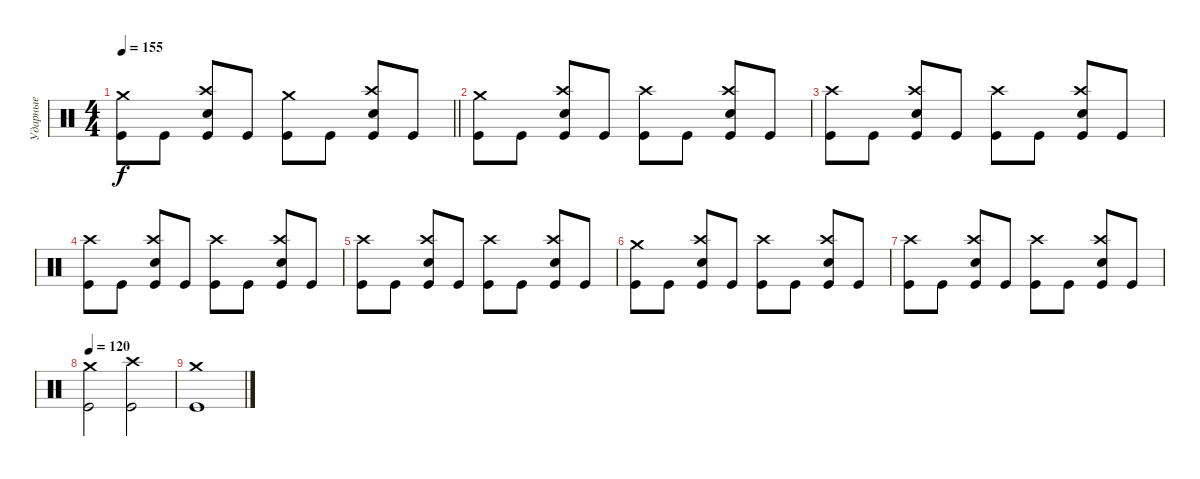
\track ("Ударные" "Ударные") {instrument percussion}
\staff {score}
\articulation defaults
\ts (4 4)
\tempo 155
\clef neutral
\barLineRight lightlight
\ks c
("Crash medium (hit)" "Kick (hit)").8{dy f} "Kick (hit)".8 ("Crash high (hit)" "Kick (hit)" "Electric Snare (hit)").8 "Kick (hit)".8 ("Crash medium (hit)" "Kick (hit)").8 "Kick (hit)".8 ("Crash high (hit)" "Kick (hit)" "Electric Snare (hit)").8 "Kick (hit)".8 |
\section ("" " ")
("Crash medium (hit)" "Kick (hit)").8 "Kick (hit)".8 ("Crash high (hit)" "Kick (hit)" "Electric Snare (hit)").8 "Kick (hit)".8 ("Crash high (hit)" "Kick (hit)").8 "Kick (hit)".8 ("Crash high (hit)" "Kick (hit)" "Electric Snare (hit)").8 "Kick (hit)".8 |
("Crash high (hit)" "Kick (hit)").8 "Kick (hit)".8 ("Crash high (hit)" "Kick (hit)" "Electric Snare (hit)").8 "Kick (hit)".8 ("Crash high (hit)" "Kick (hit)").8 "Kick (hit)".8 ("Crash high (hit)" "Kick (hit)" "Electric Snare (hit)").8 "Kick (hit)".8 |
("Crash high (hit)" "Kick (hit)").8 "Kick (hit)".8 ("Crash high (hit)" "Kick (hit)" "Electric Snare (hit)").8 "Kick (hit)".8 ("Crash high (hit)" "Kick (hit)").8 "Kick (hit)".8 ("Crash high (hit)" "Kick (hit)" "Electric Snare (hit)").8 "Kick (hit)".8 |
("Crash high (hit)" "Kick (hit)").8 "Kick (hit)".8 ("Crash high (hit)" "Kick (hit)" "Electric Snare (hit)").8 "Kick (hit)".8 ("Crash high (hit)" "Kick (hit)").8 "Kick (hit)".8 ("Crash high (hit)" "Kick (hit)" "Electric Snare (hit)").8 "Kick (hit)".8 |
("Crash medium (hit)" "Kick (hit)").8 "Kick (hit)".8 ("Crash high (hit)" "Kick (hit)" "Electric Snare (hit)").8 "Kick (hit)".8 ("Crash high (hit)" "Kick (hit)").8 "Kick (hit)".8 ("Crash high (hit)" "Kick (hit)" "Electric Snare (hit)").8 "Kick (hit)".8 |
("Crash high (hit)" "Kick (hit)").8 "Kick (hit)".8 ("Crash high (hit)" "Kick (hit)" "Electric Snare (hit)").8 "Kick (hit)".8 ("Crash high (hit)" "Kick (hit)").8 "Kick (hit)".8 ("Crash high (hit)" "Kick (hit)" "Electric Snare (hit)").8 "Kick (hit)".8 |
\tempo 120
("Crash medium (hit)" "Kick (hit)").2 ("Crash high (hit)" "Kick (hit)").2 |
("Crash medium (hit)" "Kick (hit)").1
